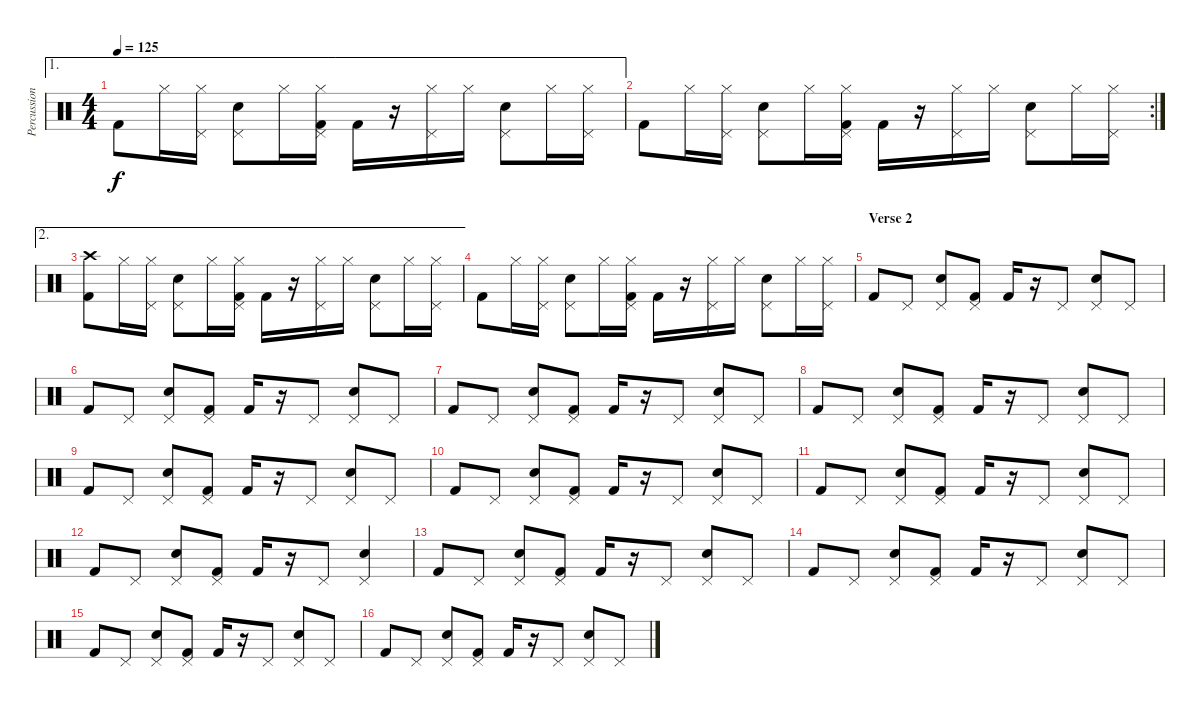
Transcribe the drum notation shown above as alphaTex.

\track ("Percussions" "Percussion") {instrument percussion}
\staff {score}
\articulation defaults
\ae 1
\ts (4 4)
\tempo 125
\clef neutral
\ks c "Kick (hit) 2".8{dy f} "Hi-Hat (closed)".16
("Pedal Hi-Hat (hit)" "Hi-Hat (closed)").16 ("Pedal Hi-Hat (hit)" "Electric Snare (hit)").8 "Hi-Hat (closed)".16 ("Pedal Hi-Hat (hit)" "Hi-Hat (closed)" "Kick (hit) 2").16 "Kick (hit) 2".16 r.16 ("Pedal Hi-Hat (hit)" "Hi-Hat (closed)").16 "Hi-Hat (closed)".16 ("Pedal Hi-Hat (hit)" "Electric Snare (hit)").8 "Hi-Hat (closed)".16 ("Pedal Hi-Hat (hit)" "Hi-Hat (closed)").16 |
\rc 2 "Kick (hit) 2".8 "Hi-Hat (closed)".16
("Pedal Hi-Hat (hit)" "Hi-Hat (closed)").16 ("Pedal Hi-Hat (hit)" "Electric Snare (hit)").8 "Hi-Hat (closed)".16 ("Pedal Hi-Hat (hit)" "Hi-Hat (closed)" "Kick (hit) 2").16 "Kick (hit) 2".16 r.16 ("Pedal Hi-Hat (hit)" "Hi-Hat (closed)").16 "Hi-Hat (closed)".16 ("Pedal Hi-Hat (hit)" "Electric Snare (hit)").8 "Hi-Hat (closed)".16 ("Pedal Hi-Hat (hit)" "Hi-Hat (closed)").16 |
\ae 2
("Crash high (hit)" "Kick (hit) 2").8 "Hi-Hat (closed)".16 ("Pedal Hi-Hat (hit)" "Hi-Hat (closed)").16 ("Pedal Hi-Hat (hit)" "Electric Snare (hit)").8 "Hi-Hat (closed)".16 ("Pedal Hi-Hat (hit)" "Hi-Hat (closed)" "Kick (hit) 2").16 "Kick (hit) 2".16 r.16 ("Pedal Hi-Hat (hit)" "Hi-Hat (closed)").16 "Hi-Hat (closed)".16 ("Pedal Hi-Hat (hit)" "Electric Snare (hit)").8 "Hi-Hat (closed)".16 ("Pedal Hi-Hat (hit)" "Hi-Hat (closed)").16 |
"Kick (hit) 2".8 "Hi-Hat (closed)".16 ("Pedal Hi-Hat (hit)" "Hi-Hat (closed)").16 ("Pedal Hi-Hat (hit)" "Electric Snare (hit)").8 "Hi-Hat (closed)".16 ("Pedal Hi-Hat (hit)" "Hi-Hat (closed)" "Kick (hit) 2").16 "Kick (hit) 2".16 r.16 ("Pedal Hi-Hat (hit)" "Hi-Hat (closed)").16 "Hi-Hat (closed)".16 ("Pedal Hi-Hat (hit)" "Electric Snare (hit)").8 "Hi-Hat (closed)".16 ("Pedal Hi-Hat (hit)" "Hi-Hat (closed)").16 |
\section ("" "Verse 2")
"Kick (hit) 2".8 "Pedal Hi-Hat (hit)".8 ("Pedal Hi-Hat (hit)" "Electric Snare (hit)").8 ("Pedal Hi-Hat (hit)" "Kick (hit) 2").8 "Kick (hit) 2".16 r.16 "Pedal Hi-Hat (hit)".8 ("Pedal Hi-Hat (hit)" "Electric Snare (hit)").8 "Pedal Hi-Hat (hit)".8 |
"Kick (hit) 2".8 "Pedal Hi-Hat (hit)".8 ("Pedal Hi-Hat (hit)" "Electric Snare (hit)").8 ("Pedal Hi-Hat (hit)" "Kick (hit) 2").8 "Kick (hit) 2".16 r.16 "Pedal Hi-Hat (hit)".8 ("Pedal Hi-Hat (hit)" "Electric Snare (hit)").8 "Pedal Hi-Hat (hit)".8 |
"Kick (hit) 2".8 "Pedal Hi-Hat (hit)".8 ("Pedal Hi-Hat (hit)" "Electric Snare (hit)").8 ("Pedal Hi-Hat (hit)" "Kick (hit) 2").8 "Kick (hit) 2".16 r.16 "Pedal Hi-Hat (hit)".8 ("Pedal Hi-Hat (hit)" "Electric Snare (hit)").8 "Pedal Hi-Hat (hit)".8 |
"Kick (hit) 2".8 "Pedal Hi-Hat (hit)".8 ("Pedal Hi-Hat (hit)" "Electric Snare (hit)").8 ("Pedal Hi-Hat (hit)" "Kick (hit) 2").8 "Kick (hit) 2".16 r.16 "Pedal Hi-Hat (hit)".8 ("Pedal Hi-Hat (hit)" "Electric Snare (hit)").8 "Pedal Hi-Hat (hit)".8 |
"Kick (hit) 2".8 "Pedal Hi-Hat (hit)".8 ("Pedal Hi-Hat (hit)" "Electric Snare (hit)").8 ("Pedal Hi-Hat (hit)" "Kick (hit) 2").8 "Kick (hit) 2".16 r.16 "Pedal Hi-Hat (hit)".8 ("Pedal Hi-Hat (hit)" "Electric Snare (hit)").8 "Pedal Hi-Hat (hit)".8 |
"Kick (hit) 2".8 "Pedal Hi-Hat (hit)".8 ("Pedal Hi-Hat (hit)" "Electric Snare (hit)").8 ("Pedal Hi-Hat (hit)" "Kick (hit) 2").8 "Kick (hit) 2".16 r.16 "Pedal Hi-Hat (hit)".8 ("Pedal Hi-Hat (hit)" "Electric Snare (hit)").8 "Pedal Hi-Hat (hit)".8 |
"Kick (hit) 2".8 "Pedal Hi-Hat (hit)".8 ("Pedal Hi-Hat (hit)" "Electric Snare (hit)").8 ("Pedal Hi-Hat (hit)" "Kick (hit) 2").8 "Kick (hit) 2".16 r.16 "Pedal Hi-Hat (hit)".8 ("Pedal Hi-Hat (hit)" "Electric Snare (hit)").8 "Pedal Hi-Hat (hit)".8 |
"Kick (hit) 2".8 "Pedal Hi-Hat (hit)".8 ("Pedal Hi-Hat (hit)" "Electric Snare (hit)").8 ("Pedal Hi-Hat (hit)" "Kick (hit) 2").8 "Kick (hit) 2".16 r.16 "Pedal Hi-Hat (hit)".8 ("Pedal Hi-Hat (hit)" "Electric Snare (hit)").4 |
"Kick (hit) 2".8 "Pedal Hi-Hat (hit)".8 ("Pedal Hi-Hat (hit)" "Electric Snare (hit)").8 ("Pedal Hi-Hat (hit)" "Kick (hit) 2").8 "Kick (hit) 2".16 r.16 "Pedal Hi-Hat (hit)".8 ("Pedal Hi-Hat (hit)" "Electric Snare (hit)").8 "Pedal Hi-Hat (hit)".8 |
"Kick (hit) 2".8 "Pedal Hi-Hat (hit)".8 ("Pedal Hi-Hat (hit)" "Electric Snare (hit)").8 ("Pedal Hi-Hat (hit)" "Kick (hit) 2").8 "Kick (hit) 2".16 r.16 "Pedal Hi-Hat (hit)".8 ("Pedal Hi-Hat (hit)" "Electric Snare (hit)").8 "Pedal Hi-Hat (hit)".8 |
"Kick (hit) 2".8 "Pedal Hi-Hat (hit)".8 ("Pedal Hi-Hat (hit)" "Electric Snare (hit)").8 ("Pedal Hi-Hat (hit)" "Kick (hit) 2").8 "Kick (hit) 2".16 r.16 "Pedal Hi-Hat (hit)".8 ("Pedal Hi-Hat (hit)" "Electric Snare (hit)").8 "Pedal Hi-Hat (hit)".8 |
"Kick (hit) 2".8 "Pedal Hi-Hat (hit)".8 ("Pedal Hi-Hat (hit)" "Electric Snare (hit)").8 ("Pedal Hi-Hat (hit)" "Kick (hit) 2").8 "Kick (hit) 2".16 r.16 "Pedal Hi-Hat (hit)".8 ("Pedal Hi-Hat (hit)" "Electric Snare (hit)").8 "Pedal Hi-Hat (hit)".8
